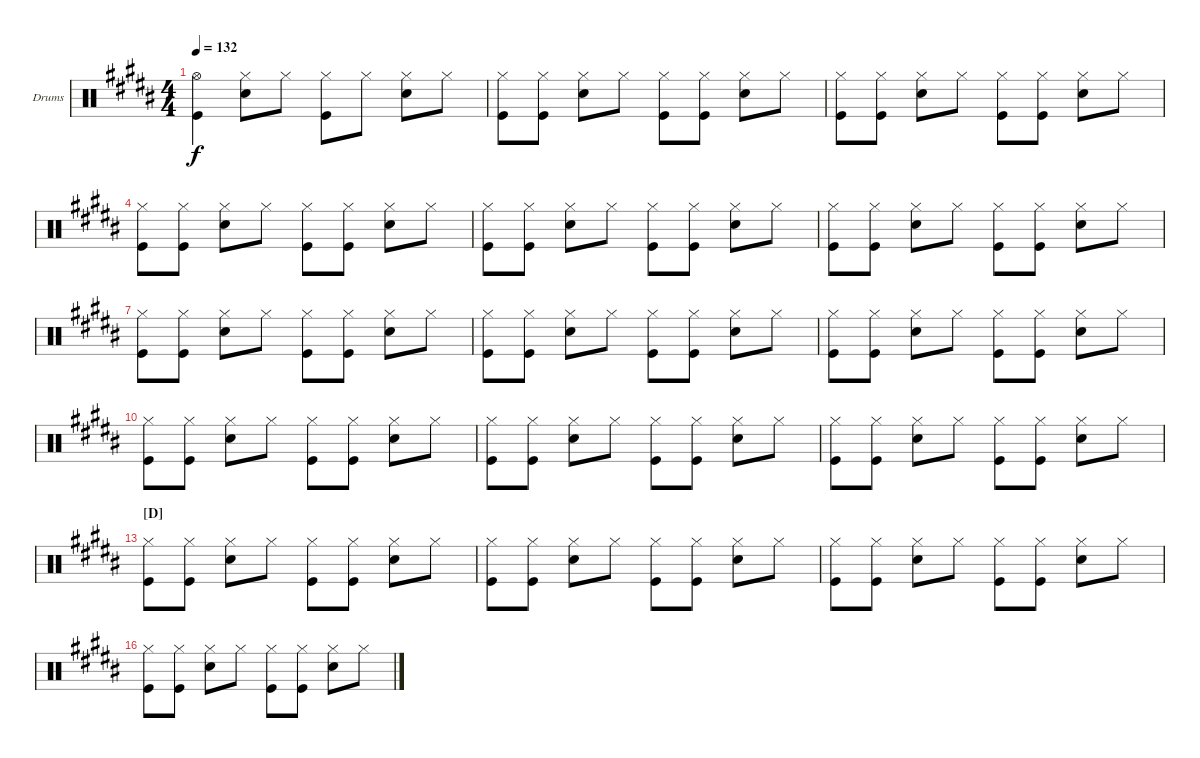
\bracketExtendMode nobrackets
\firstSystemTrackNameOrientation horizontal
\otherSystemsTrackNameOrientation horizontal
\defaultBarNumberDisplay FirstOfSystem
\track ("Drumkit" "Drums") {instrument percussion}
\staff {score}
\articulation defaults
\ts (4 4)
\tempo 132
\clef neutral
\ks b
("Hi-Hat (open)" "Kick (hit)").4{dy f} ("Hi-Hat (closed)" "Snare (hit) 2").8 "Hi-Hat (closed)".8 ("Hi-Hat (closed)" "Kick (hit)").8 "Hi-Hat (closed)".8 ("Hi-Hat (closed)" "Snare (hit) 2").8 "Hi-Hat (closed)".8 |
("Hi-Hat (closed)" "Kick (hit)").8 ("Hi-Hat (closed)" "Kick (hit)").8 ("Hi-Hat (closed)" "Snare (hit) 2").8 "Hi-Hat (closed)".8 ("Hi-Hat (closed)" "Kick (hit)").8 ("Hi-Hat (closed)" "Kick (hit)").8 ("Hi-Hat (closed)" "Snare (hit) 2").8 "Hi-Hat (closed)".8 |
("Hi-Hat (closed)" "Kick (hit)").8 ("Hi-Hat (closed)" "Kick (hit)").8 ("Hi-Hat (closed)" "Snare (hit) 2").8 "Hi-Hat (closed)".8 ("Hi-Hat (closed)" "Kick (hit)").8 ("Hi-Hat (closed)" "Kick (hit)").8 ("Hi-Hat (closed)" "Snare (hit) 2").8 "Hi-Hat (closed)".8 |
("Hi-Hat (closed)" "Kick (hit)").8 ("Hi-Hat (closed)" "Kick (hit)").8 ("Hi-Hat (closed)" "Snare (hit) 2").8 "Hi-Hat (closed)".8 ("Hi-Hat (closed)" "Kick (hit)").8 ("Hi-Hat (closed)" "Kick (hit)").8 ("Hi-Hat (closed)" "Snare (hit) 2").8 "Hi-Hat (closed)".8 |
("Hi-Hat (closed)" "Kick (hit)").8 ("Hi-Hat (closed)" "Kick (hit)").8 ("Hi-Hat (closed)" "Snare (hit) 2").8 "Hi-Hat (closed)".8 ("Hi-Hat (closed)" "Kick (hit)").8 ("Hi-Hat (closed)" "Kick (hit)").8 ("Hi-Hat (closed)" "Snare (hit) 2").8 "Hi-Hat (closed)".8 |
("Hi-Hat (closed)" "Kick (hit)").8 ("Hi-Hat (closed)" "Kick (hit)").8 ("Hi-Hat (closed)" "Snare (hit) 2").8 "Hi-Hat (closed)".8 ("Hi-Hat (closed)" "Kick (hit)").8 ("Hi-Hat (closed)" "Kick (hit)").8 ("Hi-Hat (closed)" "Snare (hit) 2").8 "Hi-Hat (closed)".8 |
("Hi-Hat (closed)" "Kick (hit)").8 ("Hi-Hat (closed)" "Kick (hit)").8 ("Hi-Hat (closed)" "Snare (hit) 2").8 "Hi-Hat (closed)".8 ("Hi-Hat (closed)" "Kick (hit)").8 ("Hi-Hat (closed)" "Kick (hit)").8 ("Hi-Hat (closed)" "Snare (hit) 2").8 "Hi-Hat (closed)".8 |
("Hi-Hat (closed)" "Kick (hit)").8 ("Hi-Hat (closed)" "Kick (hit)").8 ("Hi-Hat (closed)" "Snare (hit) 2").8 "Hi-Hat (closed)".8 ("Hi-Hat (closed)" "Kick (hit)").8 ("Hi-Hat (closed)" "Kick (hit)").8 ("Hi-Hat (closed)" "Snare (hit) 2").8 "Hi-Hat (closed)".8 |
("Hi-Hat (closed)" "Kick (hit)").8 ("Hi-Hat (closed)" "Kick (hit)").8 ("Hi-Hat (closed)" "Snare (hit) 2").8 "Hi-Hat (closed)".8 ("Hi-Hat (closed)" "Kick (hit)").8 ("Hi-Hat (closed)" "Kick (hit)").8 ("Hi-Hat (closed)" "Snare (hit) 2").8 "Hi-Hat (closed)".8 |
("Hi-Hat (closed)" "Kick (hit)").8 ("Hi-Hat (closed)" "Kick (hit)").8 ("Hi-Hat (closed)" "Snare (hit) 2").8 "Hi-Hat (closed)".8 ("Hi-Hat (closed)" "Kick (hit)").8 ("Hi-Hat (closed)" "Kick (hit)").8 ("Hi-Hat (closed)" "Snare (hit) 2").8 "Hi-Hat (closed)".8 |
("Hi-Hat (closed)" "Kick (hit)").8 ("Hi-Hat (closed)" "Kick (hit)").8 ("Hi-Hat (closed)" "Snare (hit) 2").8 "Hi-Hat (closed)".8 ("Hi-Hat (closed)" "Kick (hit)").8 ("Hi-Hat (closed)" "Kick (hit)").8 ("Hi-Hat (closed)" "Snare (hit) 2").8 "Hi-Hat (closed)".8 |
("Hi-Hat (closed)" "Kick (hit)").8 ("Hi-Hat (closed)" "Kick (hit)").8 ("Hi-Hat (closed)" "Snare (hit) 2").8 "Hi-Hat (closed)".8 ("Hi-Hat (closed)" "Kick (hit)").8 ("Hi-Hat (closed)" "Kick (hit)").8 ("Hi-Hat (closed)" "Snare (hit) 2").8 "Hi-Hat (closed)".8 |
\section ("D" "")
("Hi-Hat (closed)" "Kick (hit)").8 ("Hi-Hat (closed)" "Kick (hit)").8 ("Hi-Hat (closed)" "Snare (hit) 2").8 "Hi-Hat (closed)".8 ("Hi-Hat (closed)" "Kick (hit)").8 ("Hi-Hat (closed)" "Kick (hit)").8 ("Hi-Hat (closed)" "Snare (hit) 2").8 "Hi-Hat (closed)".8 |
("Hi-Hat (closed)" "Kick (hit)").8 ("Hi-Hat (closed)" "Kick (hit)").8 ("Hi-Hat (closed)" "Snare (hit) 2").8 "Hi-Hat (closed)".8 ("Hi-Hat (closed)" "Kick (hit)").8 ("Hi-Hat (closed)" "Kick (hit)").8 ("Hi-Hat (closed)" "Snare (hit) 2").8 "Hi-Hat (closed)".8 |
("Hi-Hat (closed)" "Kick (hit)").8 ("Hi-Hat (closed)" "Kick (hit)").8 ("Hi-Hat (closed)" "Snare (hit) 2").8 "Hi-Hat (closed)".8 ("Hi-Hat (closed)" "Kick (hit)").8 ("Hi-Hat (closed)" "Kick (hit)").8 ("Hi-Hat (closed)" "Snare (hit) 2").8 "Hi-Hat (closed)".8 |
("Hi-Hat (closed)" "Kick (hit)").8 ("Hi-Hat (closed)" "Kick (hit)").8 ("Hi-Hat (closed)" "Snare (hit) 2").8 "Hi-Hat (closed)".8 ("Hi-Hat (closed)" "Kick (hit)").8 ("Hi-Hat (closed)" "Kick (hit)").8 ("Hi-Hat (closed)" "Snare (hit) 2").8 "Hi-Hat (closed)".8
